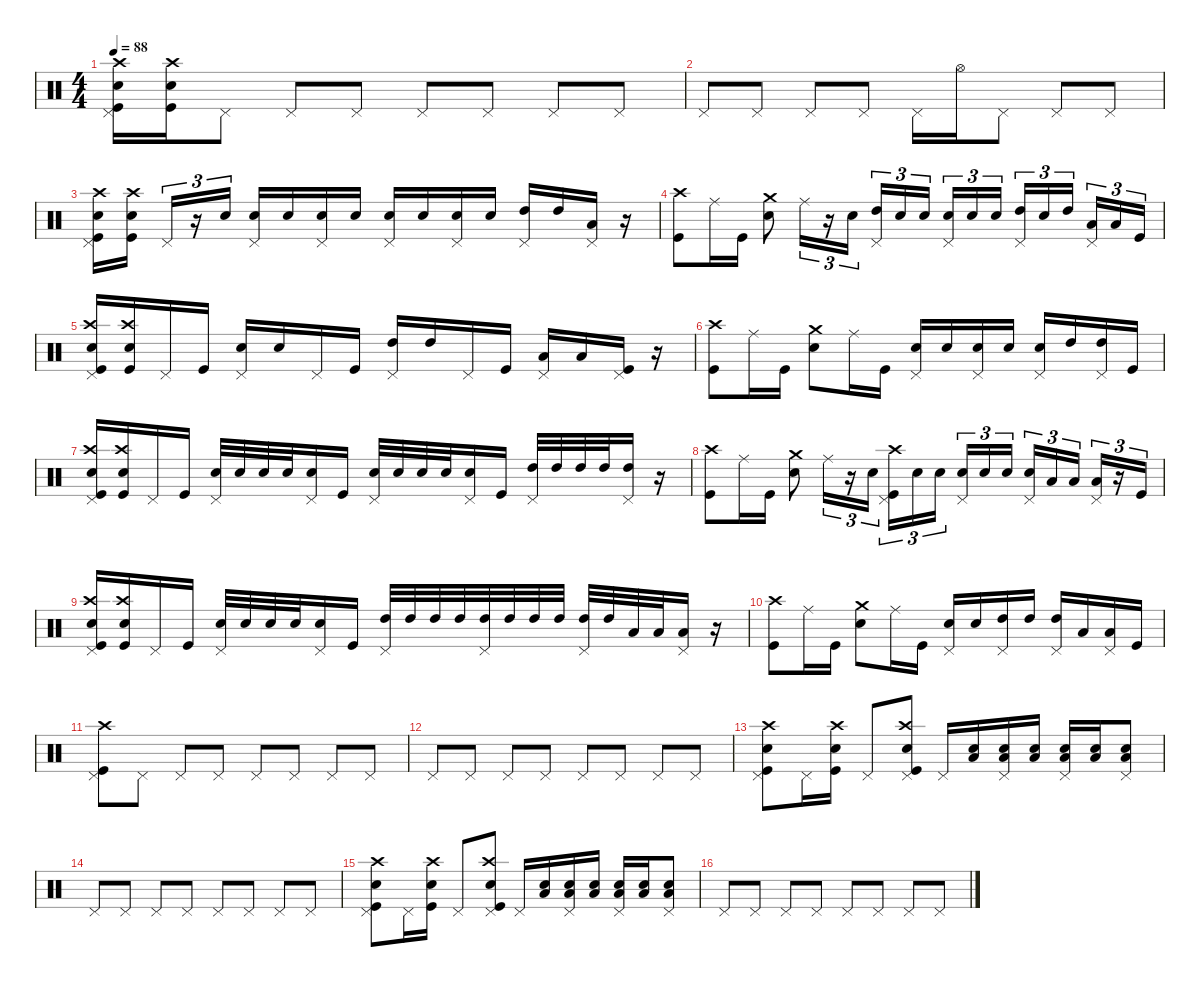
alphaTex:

\defaultSystemsLayout 4
\hideDynamics
\bracketExtendMode nobrackets
\singleTrackTrackNamePolicy hidden
\multiTrackTrackNamePolicy hidden
\firstSystemTrackNameMode fullname
\firstSystemTrackNameOrientation horizontal
\otherSystemsTrackNameOrientation horizontal
\track ("Drums" "drm.") {instrument percussion}
\staff {score}
\articulation defaults
\ts (4 4)
\tempo 88
\clef neutral
\ks c
("Crash high (hit)" "Pedal Hi-Hat (hit)" "Snare (hit) 2" "Kick (hit)").16{dy f beam Down} ("Crash high (hit)" "Snare (hit) 2" "Kick (hit)").16{beam Down} "Pedal Hi-Hat (hit)".8{dy p beam Down} "Pedal Hi-Hat (hit)".8{beam Up} "Pedal Hi-Hat (hit)".8{beam Up} "Pedal Hi-Hat (hit)".8{beam Up} "Pedal Hi-Hat (hit)".8{beam Up} "Pedal Hi-Hat (hit)".8{beam Up} "Pedal Hi-Hat (hit)".8{beam Up} |
"Pedal Hi-Hat (hit)".8{beam Up} "Pedal Hi-Hat (hit)".8{beam Up} "Pedal Hi-Hat (hit)".8{beam Up} "Pedal Hi-Hat (hit)".8{beam Up} "Pedal Hi-Hat (hit)".16{beam Down} "Hi-Hat (open)".16{dy mf beam Down} "Pedal Hi-Hat (hit)".8{dy p beam Down} "Pedal Hi-Hat (hit)".8{beam Up} "Pedal Hi-Hat (hit)".8{beam Up} |
("Crash high (hit)" "Pedal Hi-Hat (hit)" "Snare (hit) 2" "Kick (hit)").16{dy f beam Down} ("Crash high (hit)" "Snare (hit) 2" "Kick (hit)").16{beam Down} "Pedal Hi-Hat (hit)".16{tu (3 2) dy p beam Up} r.16{tu (3 2) beam Up} "Snare (hit) 2".16{tu (3 2) beam Up} ("Pedal Hi-Hat (hit)" "Snare (hit) 2").16{beam Up} "Snare (hit) 2".16{dy mf beam Up} ("Pedal Hi-Hat (hit)" "Snare (hit) 2").16{dy p beam Up} "Snare (hit) 2".16{dy f beam Up} ("Pedal Hi-Hat (hit)" "Snare (hit) 2").16{dy p beam Up} "Snare (hit) 2".16{dy mf beam Up} ("Pedal Hi-Hat (hit)" "Snare (hit) 2").16{dy p beam Up} "Snare (hit) 2".16{dy f beam Up} ("Pedal Hi-Hat (hit)" "High Tom (hit)").16{dy p beam Up} "High Tom (hit)".16{dy mf beam Up} ("Pedal Hi-Hat (hit)" "Low Tom (hit)").16{dy p beam Up} r.16{beam Up} |
("Crash high (hit)" "Kick (hit)").8{dy f beam Down} "Ride (middle)".16{dy mf beam Down} "Kick (hit)".16{dy f beam Down} ("Crash medium (hit)" "Snare (hit) 2").8{beam Down} "Ride (middle)".16{tu (3 2) dy mf beam Down} r.16{tu (3 2) beam Down} "Snare (hit) 2".16{tu (3 2) dy p beam Down} ("Pedal Hi-Hat (hit)" "High Tom (hit)").16{tu (3 2) beam Up} "Snare (hit) 2".16{tu (3 2) dy mp beam Up} "Snare (hit) 2".16{tu (3 2) dy mf beam Up} ("Pedal Hi-Hat (hit)" "Snare (hit) 2").16{tu (3 2) dy p beam Up} "Snare (hit) 2".16{tu (3 2) dy mp beam Up} "Snare (hit) 2".16{tu (3 2) dy mf beam Up} ("Pedal Hi-Hat (hit)" "High Tom (hit)").16{tu (3 2) dy p beam Up} "Snare (hit) 2".16{tu (3 2) dy mp beam Up} "High Tom (hit)".16{tu (3 2) dy mf beam Up} ("Pedal Hi-Hat (hit)" "Low Tom (hit)").16{tu (3 2) dy p beam Up} "Low Tom (hit)".16{tu (3 2) dy mp beam Up} "Kick (hit)".16{tu (3 2) dy f beam Up} |
("Crash high (hit)" "Pedal Hi-Hat (hit)" "Snare (hit) 2" "Kick (hit)").16{beam Up} ("Crash high (hit)" "Snare (hit) 2" "Kick (hit)").16{beam Up} "Pedal Hi-Hat (hit)".16{dy p beam Up} "Kick (hit)".16{dy f beam Up} ("Pedal Hi-Hat (hit)" "Snare (hit) 2").16{dy p beam Up} "Snare (hit) 2".16{dy mf beam Up} "Pedal Hi-Hat (hit)".16{dy p beam Up} "Kick (hit)".16{dy f beam Up} ("Pedal Hi-Hat (hit)" "High Tom (hit)").16{dy p beam Up} "High Tom (hit)".16{dy mf beam Up} "Pedal Hi-Hat (hit)".16{dy p beam Up} "Kick (hit)".16{dy f beam Up} ("Pedal Hi-Hat (hit)" "Low Tom (hit)").16{dy p beam Up} "Low Tom (hit)".16{dy mf beam Up} ("Pedal Hi-Hat (hit)" "Kick (hit)").16{dy p beam Up} r.16{beam Up} |
("Crash high (hit)" "Kick (hit)").8{dy f beam Down} "Ride (middle)".16{dy mf beam Down} "Kick (hit)".16{dy f beam Down} ("Crash medium (hit)" "Snare (hit) 2").8{beam Down} "Ride (middle)".16{dy mf beam Down} "Kick (hit)".16{dy f beam Down} ("Pedal Hi-Hat (hit)" "Snare (hit) 2").16{dy p beam Up} "Snare (hit) 2".16{dy f beam Up} ("Pedal Hi-Hat (hit)" "Snare (hit) 2").16{dy p beam Up} "Snare (hit) 2".16{dy f beam Up} ("Pedal Hi-Hat (hit)" "Snare (hit) 2").16{dy p beam Up} "High Tom (hit)".16{dy f beam Up} ("Pedal Hi-Hat (hit)" "High Tom (hit)").16{dy p beam Up} "Kick (hit)".16{dy f beam Up} |
("Crash high (hit)" "Pedal Hi-Hat (hit)" "Snare (hit) 2" "Kick (hit)").16{beam Up} ("Crash high (hit)" "Snare (hit) 2" "Kick (hit)").16{beam Up} "Pedal Hi-Hat (hit)".16{dy p beam Up} "Kick (hit)".16{dy f beam Up} ("Pedal Hi-Hat (hit)" "Snare (hit) 2").32{dy p beam Up} "Snare (hit) 2".32{dy mf beam Up} "Snare (hit) 2".32{dy mp beam Up} "Snare (hit) 2".32{beam Up} ("Pedal Hi-Hat (hit)" "Snare (hit) 2").16{dy p beam Up} "Kick (hit)".16{dy f beam Up} ("Pedal Hi-Hat (hit)" "Snare (hit) 2").32{dy p beam Up} "Snare (hit) 2".32{dy mf beam Up} "Snare (hit) 2".32{dy mp beam Up} "Snare (hit) 2".32{beam Up} ("Pedal Hi-Hat (hit)" "Snare (hit) 2").16{dy p beam Up} "Kick (hit)".16{dy f beam Up} ("Pedal Hi-Hat (hit)" "High Tom (hit)").32{dy p beam Up} "High Tom (hit)".32{dy mf beam Up} "High Tom (hit)".32{dy mp beam Up} "High Tom (hit)".32{beam Up} ("Pedal Hi-Hat (hit)" "High Tom (hit)").16{dy p beam Up} r.16{beam Up} |
("Crash high (hit)" "Kick (hit)").8{dy f beam Down} "Ride (middle)".16{dy mf beam Down} "Kick (hit)".16{dy f beam Down} ("Crash medium (hit)" "Snare (hit) 2").8{beam Down} "Ride (middle)".16{tu (3 2) dy mf beam Down} r.16{tu (3 2) beam Down} "Snare (hit) 2".16{tu (3 2) dy p beam Down} ("Crash high (hit)" "Pedal Hi-Hat (hit)" "Kick (hit)").16{tu (3 2) dy mp beam Down} "Snare (hit) 2".16{tu (3 2) beam Down} "Snare (hit) 2".16{tu (3 2) dy mf beam Down} ("Pedal Hi-Hat (hit)" "Snare (hit) 2").16{tu (3 2) dy p beam Up} "Snare (hit) 2".16{tu (3 2) dy mp beam Up} "Snare (hit) 2".16{tu (3 2) dy mf beam Up} ("Pedal Hi-Hat (hit)" "Snare (hit) 2").16{tu (3 2) dy p beam Up} "Low Tom (hit)".16{tu (3 2) beam Up} "Low Tom (hit)".16{tu (3 2) dy mf beam Up} ("Pedal Hi-Hat (hit)" "Low Tom (hit)").16{tu (3 2) dy p beam Up} r.16{tu (3 2) beam Up} "Kick (hit)".16{tu (3 2) dy f beam Up} |
("Crash high (hit)" "Pedal Hi-Hat (hit)" "Snare (hit) 2" "Kick (hit)").16{beam Up} ("Crash high (hit)" "Snare (hit) 2" "Kick (hit)").16{beam Up} "Pedal Hi-Hat (hit)".16{dy p beam Up} "Kick (hit)".16{dy f beam Up} ("Pedal Hi-Hat (hit)" "Snare (hit) 2").32{dy p beam Up} "Snare (hit) 2".32{dy mf beam Up} "Snare (hit) 2".32{dy mp beam Up} "Snare (hit) 2".32{beam Up} ("Pedal Hi-Hat (hit)" "Snare (hit) 2").16{dy p beam Up} "Kick (hit)".16{dy f beam Up} ("Pedal Hi-Hat (hit)" "High Tom (hit)").32{dy p beam Up} "High Tom (hit)".32{dy mf beam Up} "High Tom (hit)".32{beam Up} "High Tom (hit)".32{dy mp beam Up} ("Pedal Hi-Hat (hit)" "High Tom (hit)").32{dy p beam Up} "High Tom (hit)".32{dy mp beam Up} "High Tom (hit)".32{beam Up} "High Tom (hit)".32{beam Up} ("Pedal Hi-Hat (hit)" "High Tom (hit)").32{dy p beam Up} "High Tom (hit)".32{dy mf beam Up} "Low Tom (hit)".32{beam Up} "Low Tom (hit)".32{beam Up} ("Pedal Hi-Hat (hit)" "Low Tom (hit)").16{dy p beam Up} r.16{beam Up} |
("Crash high (hit)" "Kick (hit)").8{dy f beam Down} "Ride (middle)".16{dy mf beam Down} "Kick (hit)".16{dy f beam Down} ("Crash medium (hit)" "Snare (hit) 2").8{beam Down} "Ride (middle)".16{dy mf beam Down} "Kick (hit)".16{dy f beam Down} ("Pedal Hi-Hat (hit)" "Snare (hit) 2").16{dy p beam Up} "Snare (hit) 2".16{dy pp beam Up} ("Pedal Hi-Hat (hit)" "High Tom (hit)").16{dy p beam Up} "High Tom (hit)".16{dy f beam Up} ("Pedal Hi-Hat (hit)" "High Tom (hit)").16{dy p beam Up} "Low Tom (hit)".16{dy f beam Up} ("Pedal Hi-Hat (hit)" "Low Tom (hit)").16{dy p beam Up} "Kick (hit)".16{dy f beam Up} |
("Crash high (hit)" "Pedal Hi-Hat (hit)" "Kick (hit)").8{beam Down} "Pedal Hi-Hat (hit)".8{dy pp beam Down} "Pedal Hi-Hat (hit)".8{beam Up} "Pedal Hi-Hat (hit)".8{beam Up} "Pedal Hi-Hat (hit)".8{beam Up} "Pedal Hi-Hat (hit)".8{beam Up} "Pedal Hi-Hat (hit)".8{beam Up} "Pedal Hi-Hat (hit)".8{beam Up} |
"Pedal Hi-Hat (hit)".8{beam Up} "Pedal Hi-Hat (hit)".8{beam Up} "Pedal Hi-Hat (hit)".8{beam Up} "Pedal Hi-Hat (hit)".8{beam Up} "Pedal Hi-Hat (hit)".8{beam Up} "Pedal Hi-Hat (hit)".8{beam Up} "Pedal Hi-Hat (hit)".8{beam Up} "Pedal Hi-Hat (hit)".8{beam Up} |
("Crash high (hit)" "Pedal Hi-Hat (hit)" "Snare (hit) 2" "Kick (hit)").8{dy f beam Down} "Pedal Hi-Hat (hit)".16{dy pp beam Down} ("Crash high (hit)" "Snare (hit) 2" "Kick (hit)").16{dy f beam Down} "Pedal Hi-Hat (hit)".8{dy pp beam Up} ("Crash high (hit)" "Pedal Hi-Hat (hit)" "Snare (hit) 2" "Kick (hit)").8{dy f beam Up} "Pedal Hi-Hat (hit)".16{dy pp beam Up} ("Low Tom (hit)" "Snare (hit) 2").16{dy mf beam Up} ("Pedal Hi-Hat (hit)" "Low Tom (hit)" "Snare (hit) 2").16{dy pp beam Up} ("Low Tom (hit)" "Snare (hit) 2").16{dy mf beam Up} ("Pedal Hi-Hat (hit)" "Low Tom (hit)" "Snare (hit) 2").16{dy pp beam Up} ("Low Tom (hit)" "Snare (hit) 2").16{dy f beam Up} ("Pedal Hi-Hat (hit)" "Low Tom (hit)" "Snare (hit) 2").8{dy pp beam Up} |
"Pedal Hi-Hat (hit)".8{beam Up} "Pedal Hi-Hat (hit)".8{beam Up} "Pedal Hi-Hat (hit)".8{beam Up} "Pedal Hi-Hat (hit)".8{beam Up} "Pedal Hi-Hat (hit)".8{beam Up} "Pedal Hi-Hat (hit)".8{beam Up} "Pedal Hi-Hat (hit)".8{beam Up} "Pedal Hi-Hat (hit)".8{beam Up} |
("Crash high (hit)" "Pedal Hi-Hat (hit)" "Snare (hit) 2" "Kick (hit)").8{dy f beam Down} "Pedal Hi-Hat (hit)".16{dy pp beam Down} ("Crash high (hit)" "Snare (hit) 2" "Kick (hit)").16{dy f beam Down} "Pedal Hi-Hat (hit)".8{dy pp beam Up} ("Crash high (hit)" "Pedal Hi-Hat (hit)" "Snare (hit) 2" "Kick (hit)").8{dy f beam Up} "Pedal Hi-Hat (hit)".16{dy pp beam Up} ("Low Tom (hit)" "Snare (hit) 2").16{dy mf beam Up} ("Pedal Hi-Hat (hit)" "Low Tom (hit)" "Snare (hit) 2").16{dy pp beam Up} ("Low Tom (hit)" "Snare (hit) 2").16{dy mf beam Up} ("Pedal Hi-Hat (hit)" "Low Tom (hit)" "Snare (hit) 2").16{dy pp beam Up} ("Low Tom (hit)" "Snare (hit) 2").16{dy f beam Up} ("Pedal Hi-Hat (hit)" "Low Tom (hit)" "Snare (hit) 2").8{dy pp beam Up} |
"Pedal Hi-Hat (hit)".8{beam Up} "Pedal Hi-Hat (hit)".8{beam Up} "Pedal Hi-Hat (hit)".8{beam Up} "Pedal Hi-Hat (hit)".8{beam Up} "Pedal Hi-Hat (hit)".8{beam Up} "Pedal Hi-Hat (hit)".8{beam Up} "Pedal Hi-Hat (hit)".8{beam Up} "Pedal Hi-Hat (hit)".8{beam Up}
